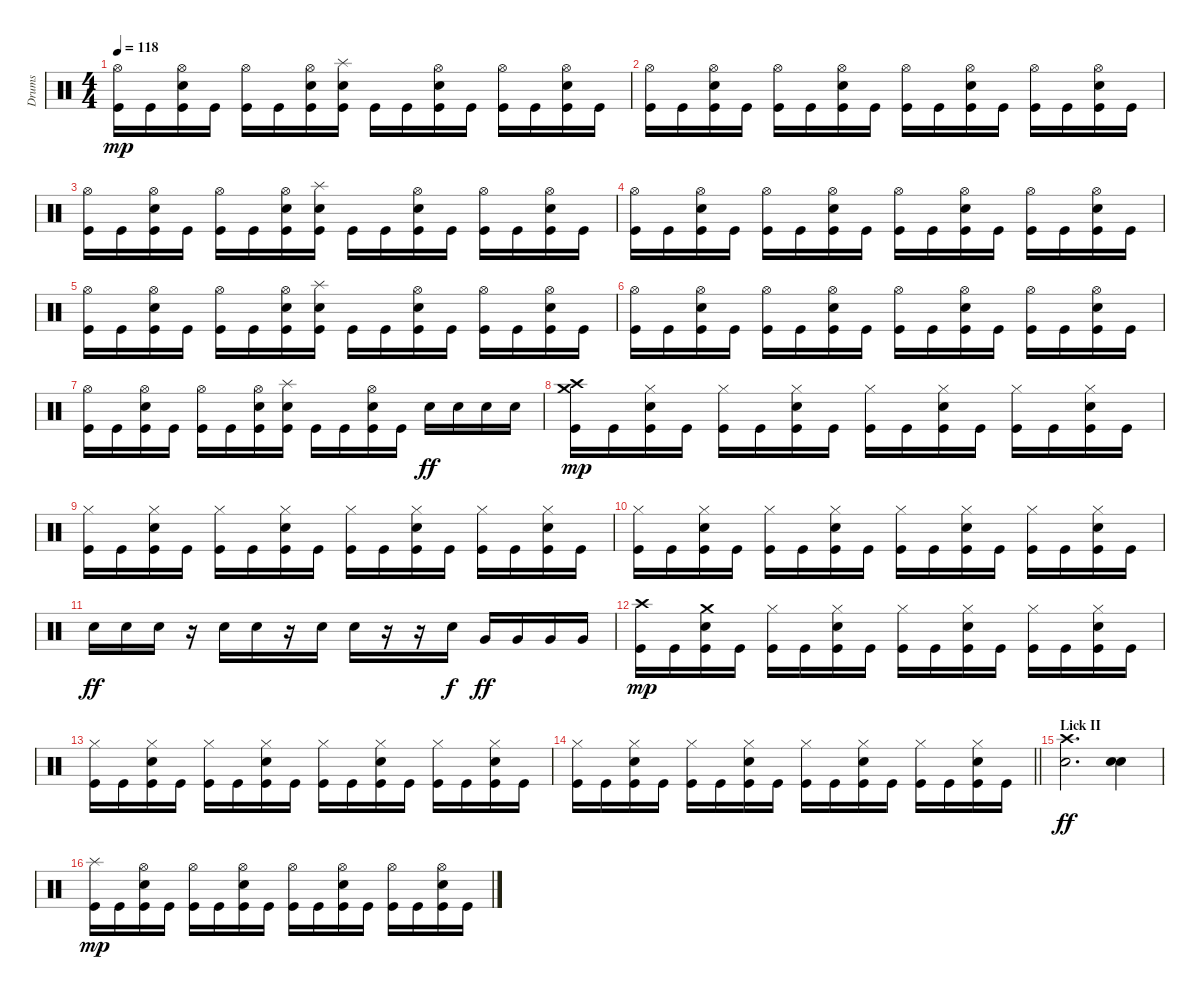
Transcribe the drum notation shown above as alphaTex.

\track ("Drums" "Drums") {instrument percussion}
\staff {score}
\articulation defaults
\ts (4 4)
\tempo 118
\clef neutral
\ks c
("Hi-Hat (open)" "Kick (hit)").16{dy mp} "Kick (hit)".16 ("Hi-Hat (open)" "Electric Snare (hit)" "Kick (hit)").16 "Kick (hit)".16 ("Hi-Hat (open)" "Kick (hit)").16 "Kick (hit)".16 ("Hi-Hat (open)" "Electric Snare (hit)" "Kick (hit)").16 ("Splash (hit)" "Electric Snare (hit)" "Kick (hit)").16 "Kick (hit)".16 "Kick (hit)".16 ("Hi-Hat (open)" "Electric Snare (hit)" "Kick (hit)").16 "Kick (hit)".16 ("Hi-Hat (open)" "Kick (hit)").16 "Kick (hit)".16 ("Hi-Hat (open)" "Electric Snare (hit)" "Kick (hit)").16 "Kick (hit)".16 |
("Hi-Hat (open)" "Kick (hit)").16 "Kick (hit)".16 ("Hi-Hat (open)" "Electric Snare (hit)" "Kick (hit)").16 "Kick (hit)".16 ("Hi-Hat (open)" "Kick (hit)").16 "Kick (hit)".16 ("Hi-Hat (open)" "Electric Snare (hit)" "Kick (hit)").16 "Kick (hit)".16 ("Hi-Hat (open)" "Kick (hit)").16 "Kick (hit)".16 ("Hi-Hat (open)" "Electric Snare (hit)" "Kick (hit)").16 "Kick (hit)".16 ("Hi-Hat (open)" "Kick (hit)").16 "Kick (hit)".16 ("Hi-Hat (open)" "Electric Snare (hit)" "Kick (hit)").16 "Kick (hit)".16 |
("Hi-Hat (open)" "Kick (hit)").16 "Kick (hit)".16 ("Hi-Hat (open)" "Electric Snare (hit)" "Kick (hit)").16 "Kick (hit)".16 ("Hi-Hat (open)" "Kick (hit)").16 "Kick (hit)".16 ("Hi-Hat (open)" "Electric Snare (hit)" "Kick (hit)").16 ("Splash (hit)" "Electric Snare (hit)" "Kick (hit)").16 "Kick (hit)".16 "Kick (hit)".16 ("Hi-Hat (open)" "Electric Snare (hit)" "Kick (hit)").16 "Kick (hit)".16 ("Hi-Hat (open)" "Kick (hit)").16 "Kick (hit)".16 ("Hi-Hat (open)" "Electric Snare (hit)" "Kick (hit)").16 "Kick (hit)".16 |
("Hi-Hat (open)" "Kick (hit)").16 "Kick (hit)".16 ("Hi-Hat (open)" "Electric Snare (hit)" "Kick (hit)").16 "Kick (hit)".16 ("Hi-Hat (open)" "Kick (hit)").16 "Kick (hit)".16 ("Hi-Hat (open)" "Electric Snare (hit)" "Kick (hit)").16 "Kick (hit)".16 ("Hi-Hat (open)" "Kick (hit)").16 "Kick (hit)".16 ("Hi-Hat (open)" "Electric Snare (hit)" "Kick (hit)").16 "Kick (hit)".16 ("Hi-Hat (open)" "Kick (hit)").16 "Kick (hit)".16 ("Hi-Hat (open)" "Electric Snare (hit)" "Kick (hit)").16 "Kick (hit)".16 |
("Hi-Hat (open)" "Kick (hit)").16 "Kick (hit)".16 ("Hi-Hat (open)" "Electric Snare (hit)" "Kick (hit)").16 "Kick (hit)".16 ("Hi-Hat (open)" "Kick (hit)").16 "Kick (hit)".16 ("Hi-Hat (open)" "Electric Snare (hit)" "Kick (hit)").16 ("Splash (hit)" "Electric Snare (hit)" "Kick (hit)").16 "Kick (hit)".16 "Kick (hit)".16 ("Hi-Hat (open)" "Electric Snare (hit)" "Kick (hit)").16 "Kick (hit)".16 ("Hi-Hat (open)" "Kick (hit)").16 "Kick (hit)".16 ("Hi-Hat (open)" "Electric Snare (hit)" "Kick (hit)").16 "Kick (hit)".16 |
("Hi-Hat (open)" "Kick (hit)").16 "Kick (hit)".16 ("Hi-Hat (open)" "Electric Snare (hit)" "Kick (hit)").16 "Kick (hit)".16 ("Hi-Hat (open)" "Kick (hit)").16 "Kick (hit)".16 ("Hi-Hat (open)" "Electric Snare (hit)" "Kick (hit)").16 "Kick (hit)".16 ("Hi-Hat (open)" "Kick (hit)").16 "Kick (hit)".16 ("Hi-Hat (open)" "Electric Snare (hit)" "Kick (hit)").16 "Kick (hit)".16 ("Hi-Hat (open)" "Kick (hit)").16 "Kick (hit)".16 ("Hi-Hat (open)" "Electric Snare (hit)" "Kick (hit)").16 "Kick (hit)".16 |
("Hi-Hat (open)" "Kick (hit)").16 "Kick (hit)".16 ("Hi-Hat (open)" "Electric Snare (hit)" "Kick (hit)").16 "Kick (hit)".16 ("Hi-Hat (open)" "Kick (hit)").16 "Kick (hit)".16 ("Hi-Hat (open)" "Electric Snare (hit)" "Kick (hit)").16 ("Splash (hit)" "Electric Snare (hit)" "Kick (hit)").16 "Kick (hit)".16 "Kick (hit)".16 ("Hi-Hat (open)" "Electric Snare (hit)" "Kick (hit)").16 "Kick (hit)".16 "Electric Snare (hit)".16{dy ff} "Electric Snare (hit)".16 "Electric Snare (hit)".16 "Electric Snare (hit)".16 |
("Crash high (hit)" "Crash medium (hit)" "Kick (hit)").16{dy mp} "Kick (hit)".16 ("Hi-Hat (closed)" "Electric Snare (hit)" "Kick (hit)").16 "Kick (hit)".16 ("Hi-Hat (closed)" "Kick (hit)").16 "Kick (hit)".16 ("Hi-Hat (closed)" "Electric Snare (hit)" "Kick (hit)").16 "Kick (hit)".16 ("Hi-Hat (closed)" "Kick (hit)").16 "Kick (hit)".16 ("Hi-Hat (closed)" "Electric Snare (hit)" "Kick (hit)").16 "Kick (hit)".16 ("Hi-Hat (closed)" "Kick (hit)").16 "Kick (hit)".16 ("Hi-Hat (closed)" "Electric Snare (hit)" "Kick (hit)").16 "Kick (hit)".16 |
("Hi-Hat (closed)" "Kick (hit)").16 "Kick (hit)".16 ("Hi-Hat (closed)" "Electric Snare (hit)" "Kick (hit)").16 "Kick (hit)".16 ("Hi-Hat (closed)" "Kick (hit)").16 "Kick (hit)".16 ("Hi-Hat (closed)" "Electric Snare (hit)" "Kick (hit)").16 "Kick (hit)".16 ("Hi-Hat (closed)" "Kick (hit)").16 "Kick (hit)".16 ("Hi-Hat (closed)" "Electric Snare (hit)" "Kick (hit)").16 "Kick (hit)".16 ("Hi-Hat (closed)" "Kick (hit)").16 "Kick (hit)".16 ("Hi-Hat (closed)" "Electric Snare (hit)" "Kick (hit)").16 "Kick (hit)".16 |
("Hi-Hat (closed)" "Kick (hit)").16 "Kick (hit)".16 ("Hi-Hat (closed)" "Electric Snare (hit)" "Kick (hit)").16 "Kick (hit)".16 ("Hi-Hat (closed)" "Kick (hit)").16 "Kick (hit)".16 ("Hi-Hat (closed)" "Electric Snare (hit)" "Kick (hit)").16 "Kick (hit)".16 ("Hi-Hat (closed)" "Kick (hit)").16 "Kick (hit)".16 ("Hi-Hat (closed)" "Electric Snare (hit)" "Kick (hit)").16 "Kick (hit)".16 ("Hi-Hat (closed)" "Kick (hit)").16 "Kick (hit)".16 ("Hi-Hat (closed)" "Electric Snare (hit)" "Kick (hit)").16 "Kick (hit)".16 |
"Snare (hit) 2".16{dy ff} "Snare (hit) 2".16 "Snare (hit) 2".16 r.16 "Snare (hit) 2".16 "Snare (hit) 2".16 r.16 "Snare (hit) 2".16 "Snare (hit) 2".16 r.16 r.16 "Snare (hit) 2".16{dy f} "Very Low Tom (hit)".16{dy ff} "Very Low Tom (hit)".16 "Very Low Tom (hit)".16 "Very Low Tom (hit)".16 |
("Crash high (hit)" "Kick (hit)").16{dy mp} "Kick (hit)".16 ("Crash medium (hit)" "Electric Snare (hit)" "Kick (hit)").16 "Kick (hit)".16 ("Hi-Hat (closed)" "Kick (hit)").16 "Kick (hit)".16 ("Hi-Hat (closed)" "Electric Snare (hit)" "Kick (hit)").16 "Kick (hit)".16 ("Hi-Hat (closed)" "Kick (hit)").16 "Kick (hit)".16 ("Hi-Hat (closed)" "Electric Snare (hit)" "Kick (hit)").16 "Kick (hit)".16 ("Hi-Hat (closed)" "Kick (hit)").16 "Kick (hit)".16 ("Hi-Hat (closed)" "Electric Snare (hit)" "Kick (hit)").16 "Kick (hit)".16 |
("Hi-Hat (closed)" "Kick (hit)").16 "Kick (hit)".16 ("Hi-Hat (closed)" "Electric Snare (hit)" "Kick (hit)").16 "Kick (hit)".16 ("Hi-Hat (closed)" "Kick (hit)").16 "Kick (hit)".16 ("Hi-Hat (closed)" "Electric Snare (hit)" "Kick (hit)").16 "Kick (hit)".16 ("Hi-Hat (closed)" "Kick (hit)").16 "Kick (hit)".16 ("Hi-Hat (closed)" "Electric Snare (hit)" "Kick (hit)").16 "Kick (hit)".16 ("Hi-Hat (closed)" "Kick (hit)").16 "Kick (hit)".16 ("Hi-Hat (closed)" "Electric Snare (hit)" "Kick (hit)").16 "Kick (hit)".16 |
\barLineRight lightlight
("Hi-Hat (closed)" "Kick (hit)").16 "Kick (hit)".16 ("Hi-Hat (closed)" "Electric Snare (hit)" "Kick (hit)").16 "Kick (hit)".16 ("Hi-Hat (closed)" "Kick (hit)").16 "Kick (hit)".16 ("Hi-Hat (closed)" "Electric Snare (hit)" "Kick (hit)").16 "Kick (hit)".16 ("Hi-Hat (closed)" "Kick (hit)").16 "Kick (hit)".16 ("Hi-Hat (closed)" "Electric Snare (hit)" "Kick (hit)").16 "Kick (hit)".16 ("Hi-Hat (closed)" "Kick (hit)").16 "Kick (hit)".16 ("Hi-Hat (closed)" "Electric Snare (hit)" "Kick (hit)").16 "Kick (hit)".16 |
\section ("" "Lick II")
("Crash high (hit)" "Electric Snare (hit)").2{d dy ff} ("Electric Snare (hit)" "Snare (hit) 2").4 |
("Splash (hit)" "Kick (hit)").16{dy mp} "Kick (hit)".16 ("Hi-Hat (open)" "Electric Snare (hit)" "Kick (hit)").16 "Kick (hit)".16 ("Hi-Hat (open)" "Kick (hit)").16 "Kick (hit)".16 ("Hi-Hat (open)" "Electric Snare (hit)" "Kick (hit)").16 "Kick (hit)".16 ("Hi-Hat (open)" "Kick (hit)").16 "Kick (hit)".16 ("Hi-Hat (open)" "Electric Snare (hit)" "Kick (hit)").16 "Kick (hit)".16 ("Hi-Hat (open)" "Kick (hit)").16 "Kick (hit)".16 ("Hi-Hat (open)" "Electric Snare (hit)" "Kick (hit)").16 "Kick (hit)".16
